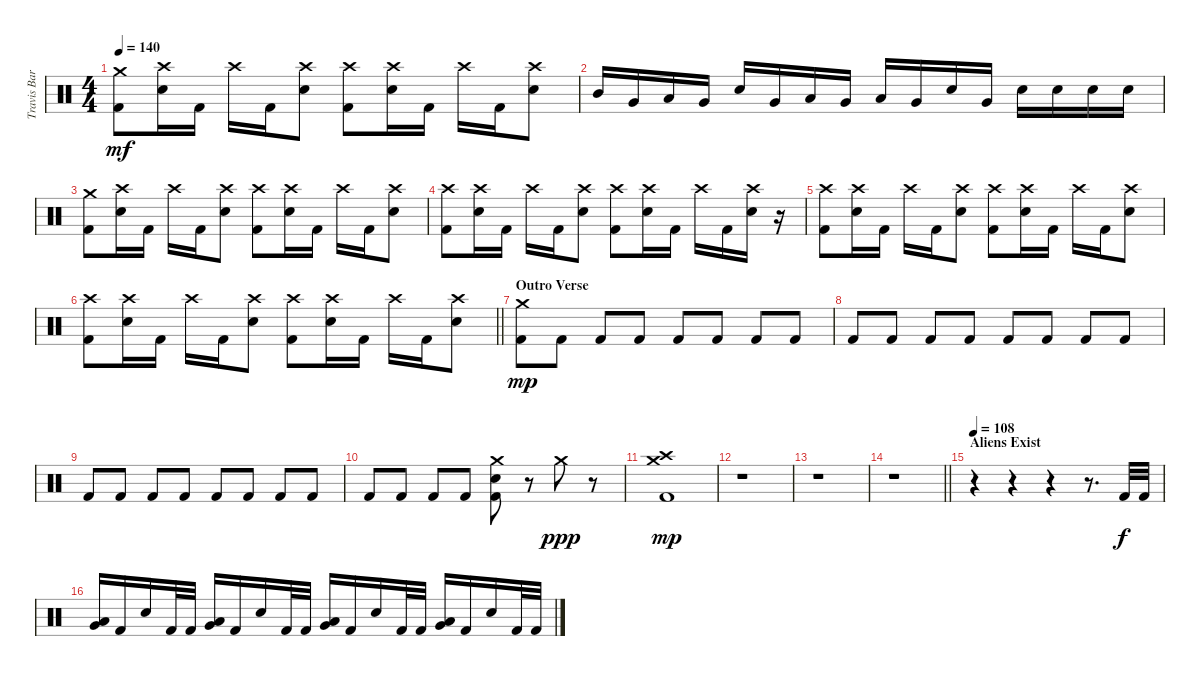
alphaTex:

\track ("Travis Barker" "Travis Bar") {instrument percussion}
\staff {score}
\articulation defaults
\ts (4 4)
\tempo 140
\clef neutral
\ks c
("Crash medium (hit)" "Kick (hit) 2").8{dy mf} ("Crash high (hit)" "Electric Snare (hit)").16 "Kick (hit) 2".16 "Crash high (hit)".16 "Kick (hit) 2".16 ("Crash high (hit)" "Electric Snare (hit)").8 ("Crash high (hit)" "Kick (hit) 2").8 ("Crash high (hit)" "Electric Snare (hit)").16 "Kick (hit) 2".16 "Crash high (hit)".16 "Kick (hit) 2".16 ("Crash high (hit)" "Electric Snare (hit)").8 |
"Mid Tom (hit)".16 "Very Low Tom (hit)".16 "Low Tom (hit)".16 "Very Low Tom (hit)".16 "Electric Snare (hit)".16 "Very Low Tom (hit)".16 "Low Tom (hit)".16 "Very Low Tom (hit)".16 "Low Tom (hit)".16 "Very Low Tom (hit)".16 "Electric Snare (hit)".16 "Very Low Tom (hit)".16 "Electric Snare (hit)".16 "Electric Snare (hit)".16 "Electric Snare (hit)".16 "Electric Snare (hit)".16 |
("Crash medium (hit)" "Kick (hit) 2").8 ("Crash high (hit)" "Electric Snare (hit)").16 "Kick (hit) 2".16 "Crash high (hit)".16 "Kick (hit) 2".16 ("Crash high (hit)" "Electric Snare (hit)").8 ("Crash high (hit)" "Kick (hit) 2").8 ("Crash high (hit)" "Electric Snare (hit)").16 "Kick (hit) 2".16 "Crash high (hit)".16 "Kick (hit) 2".16 ("Crash high (hit)" "Electric Snare (hit)").8 |
("Crash high (hit)" "Kick (hit) 2").8 ("Crash high (hit)" "Electric Snare (hit)").16 "Kick (hit) 2".16 "Crash high (hit)".16 "Kick (hit) 2".16 ("Crash high (hit)" "Electric Snare (hit)").8 ("Crash high (hit)" "Kick (hit) 2").8 ("Crash high (hit)" "Electric Snare (hit)").16 "Kick (hit) 2".16 "Crash high (hit)".16 "Kick (hit) 2".16 ("Crash high (hit)" "Electric Snare (hit)").16 r.16 |
("Crash high (hit)" "Kick (hit) 2").8 ("Crash high (hit)" "Electric Snare (hit)").16 "Kick (hit) 2".16 "Crash high (hit)".16 "Kick (hit) 2".16 ("Crash high (hit)" "Electric Snare (hit)").8 ("Crash high (hit)" "Kick (hit) 2").8 ("Crash high (hit)" "Electric Snare (hit)").16 "Kick (hit) 2".16 "Crash high (hit)".16 "Kick (hit) 2".16 ("Crash high (hit)" "Electric Snare (hit)").8 |
\barLineRight lightlight
("Crash high (hit)" "Kick (hit) 2").8 ("Crash high (hit)" "Electric Snare (hit)").16 "Kick (hit) 2".16 "Crash high (hit)".16 "Kick (hit) 2".16 ("Crash high (hit)" "Electric Snare (hit)").8 ("Crash high (hit)" "Kick (hit) 2").8 ("Crash high (hit)" "Electric Snare (hit)").16 "Kick (hit) 2".16 "Crash high (hit)".16 "Kick (hit) 2".16 ("Crash high (hit)" "Electric Snare (hit)").8 |
\section ("" "Outro Verse")
("Crash medium (hit)" "Kick (hit) 2").8{dy mp} "Kick (hit) 2".8 "Kick (hit) 2".8 "Kick (hit) 2".8 "Kick (hit) 2".8 "Kick (hit) 2".8 "Kick (hit) 2".8 "Kick (hit) 2".8 |
"Kick (hit) 2".8 "Kick (hit) 2".8 "Kick (hit) 2".8 "Kick (hit) 2".8 "Kick (hit) 2".8 "Kick (hit) 2".8 "Kick (hit) 2".8 "Kick (hit) 2".8 |
"Kick (hit) 2".8 "Kick (hit) 2".8 "Kick (hit) 2".8 "Kick (hit) 2".8 "Kick (hit) 2".8 "Kick (hit) 2".8 "Kick (hit) 2".8 "Kick (hit) 2".8 |
"Kick (hit) 2".8 "Kick (hit) 2".8 "Kick (hit) 2".8 "Kick (hit) 2".8 ("Crash medium (hit)" "Electric Snare (hit)" "Kick (hit) 2").8 r.8 "Crash medium (hit)".8{dy ppp} r.8 |
("Crash medium (hit)" "Crash high (hit)" "Kick (hit) 2").1{dy mp} |
r.1 |
r.1 |
\barLineRight lightlight
r.1 |
\section ("" "Aliens Exist")
\tempo 108
r.4 r.4 r.4 r.8{d} "Kick (hit) 2".32{dy f} "Kick (hit) 2".32 |
("Low Tom (hit)" "Very Low Tom (hit)").16 "Kick (hit) 2".16 "Electric Snare (hit)".16 "Kick (hit) 2".32 "Kick (hit) 2".32 ("Low Tom (hit)" "Very Low Tom (hit)").16 "Kick (hit) 2".16 "Electric Snare (hit)".16 "Kick (hit) 2".32 "Kick (hit) 2".32 ("Low Tom (hit)" "Very Low Tom (hit)").16 "Kick (hit) 2".16 "Electric Snare (hit)".16 "Kick (hit) 2".32 "Kick (hit) 2".32 ("Low Tom (hit)" "Very Low Tom (hit)").16 "Kick (hit) 2".16 "Electric Snare (hit)".16 "Kick (hit) 2".32 "Kick (hit) 2".32
